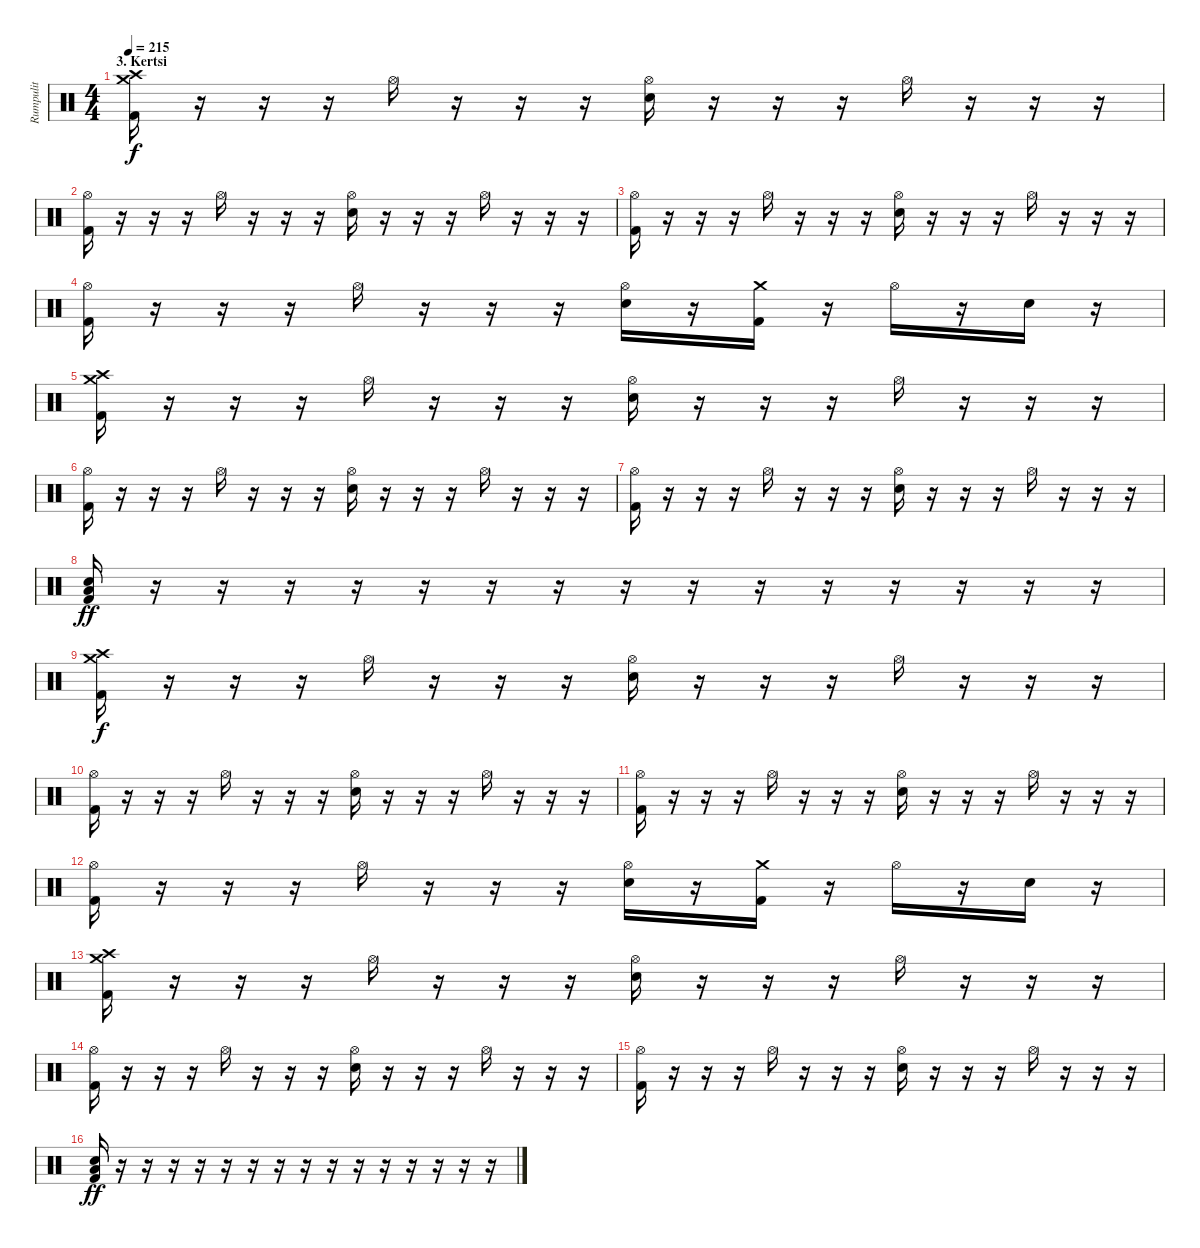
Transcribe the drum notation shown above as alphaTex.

\track ("Rumpulit" "Rumpulit") {instrument percussion}
\staff {score}
\articulation defaults
\ts (4 4)
\section ("" "3. Kertsi")
\tempo 215
\clef neutral
\ks c
("Crash medium (hit)" "Kick (hit) 2" "Crash high (hit)").16{dy f} r.16 r.16 r.16 "Hi-Hat (open)".16 r.16 r.16 r.16 ("Hi-Hat (open)" "Electric Snare (hit)").16 r.16 r.16 r.16 "Hi-Hat (open)".16 r.16 r.16 r.16 |
("Hi-Hat (open)" "Kick (hit) 2").16 r.16 r.16 r.16 "Hi-Hat (open)".16 r.16 r.16 r.16 ("Hi-Hat (open)" "Electric Snare (hit)").16 r.16 r.16 r.16 "Hi-Hat (open)".16 r.16 r.16 r.16 |
("Hi-Hat (open)" "Kick (hit) 2").16 r.16 r.16 r.16 "Hi-Hat (open)".16 r.16 r.16 r.16 ("Hi-Hat (open)" "Electric Snare (hit)").16 r.16 r.16 r.16 "Hi-Hat (open)".16 r.16 r.16 r.16 |
("Hi-Hat (open)" "Kick (hit) 2").16 r.16 r.16 r.16 "Hi-Hat (open)".16 r.16 r.16 r.16 ("Hi-Hat (open)" "Electric Snare (hit)").16 r.16 ("Crash medium (hit)" "Kick (hit) 2").16 r.16 "Hi-Hat (open)".16 r.16 "Electric Snare (hit)".16 r.16 |
("Crash medium (hit)" "Kick (hit) 2" "Crash high (hit)").16 r.16 r.16 r.16 "Hi-Hat (open)".16 r.16 r.16 r.16 ("Hi-Hat (open)" "Electric Snare (hit)").16 r.16 r.16 r.16 "Hi-Hat (open)".16 r.16 r.16 r.16 |
("Hi-Hat (open)" "Kick (hit) 2").16 r.16 r.16 r.16 "Hi-Hat (open)".16 r.16 r.16 r.16 ("Hi-Hat (open)" "Electric Snare (hit)").16 r.16 r.16 r.16 "Hi-Hat (open)".16 r.16 r.16 r.16 |
("Hi-Hat (open)" "Kick (hit) 2").16 r.16 r.16 r.16 "Hi-Hat (open)".16 r.16 r.16 r.16 ("Hi-Hat (open)" "Electric Snare (hit)").16 r.16 r.16 r.16 "Hi-Hat (open)".16 r.16 r.16 r.16 |
("Electric Snare (hit)" "Kick (hit) 2" "Low Floor Tom (hit)").16{dy ff} r.16 r.16 r.16 r.16 r.16 r.16 r.16 r.16 r.16 r.16 r.16 r.16 r.16 r.16 r.16 |
("Crash medium (hit)" "Kick (hit) 2" "Crash high (hit)").16{dy f} r.16 r.16 r.16 "Hi-Hat (open)".16 r.16 r.16 r.16 ("Hi-Hat (open)" "Electric Snare (hit)").16 r.16 r.16 r.16 "Hi-Hat (open)".16 r.16 r.16 r.16 |
("Hi-Hat (open)" "Kick (hit) 2").16 r.16 r.16 r.16 "Hi-Hat (open)".16 r.16 r.16 r.16 ("Hi-Hat (open)" "Electric Snare (hit)").16 r.16 r.16 r.16 "Hi-Hat (open)".16 r.16 r.16 r.16 |
("Hi-Hat (open)" "Kick (hit) 2").16 r.16 r.16 r.16 "Hi-Hat (open)".16 r.16 r.16 r.16 ("Hi-Hat (open)" "Electric Snare (hit)").16 r.16 r.16 r.16 "Hi-Hat (open)".16 r.16 r.16 r.16 |
("Hi-Hat (open)" "Kick (hit) 2").16 r.16 r.16 r.16 "Hi-Hat (open)".16 r.16 r.16 r.16 ("Hi-Hat (open)" "Electric Snare (hit)").16 r.16 ("Crash medium (hit)" "Kick (hit) 2").16 r.16 "Hi-Hat (open)".16 r.16 "Electric Snare (hit)".16 r.16 |
("Crash medium (hit)" "Kick (hit) 2" "Crash high (hit)").16 r.16 r.16 r.16 "Hi-Hat (open)".16 r.16 r.16 r.16 ("Hi-Hat (open)" "Electric Snare (hit)").16 r.16 r.16 r.16 "Hi-Hat (open)".16 r.16 r.16 r.16 |
("Hi-Hat (open)" "Kick (hit) 2").16 r.16 r.16 r.16 "Hi-Hat (open)".16 r.16 r.16 r.16 ("Hi-Hat (open)" "Electric Snare (hit)").16 r.16 r.16 r.16 "Hi-Hat (open)".16 r.16 r.16 r.16 |
("Hi-Hat (open)" "Kick (hit) 2").16 r.16 r.16 r.16 "Hi-Hat (open)".16 r.16 r.16 r.16 ("Hi-Hat (open)" "Electric Snare (hit)").16 r.16 r.16 r.16 "Hi-Hat (open)".16 r.16 r.16 r.16 |
("Electric Snare (hit)" "Kick (hit) 2" "Low Floor Tom (hit)").16{dy ff} r.16 r.16 r.16 r.16 r.16 r.16 r.16 r.16 r.16 r.16 r.16 r.16 r.16 r.16 r.16
